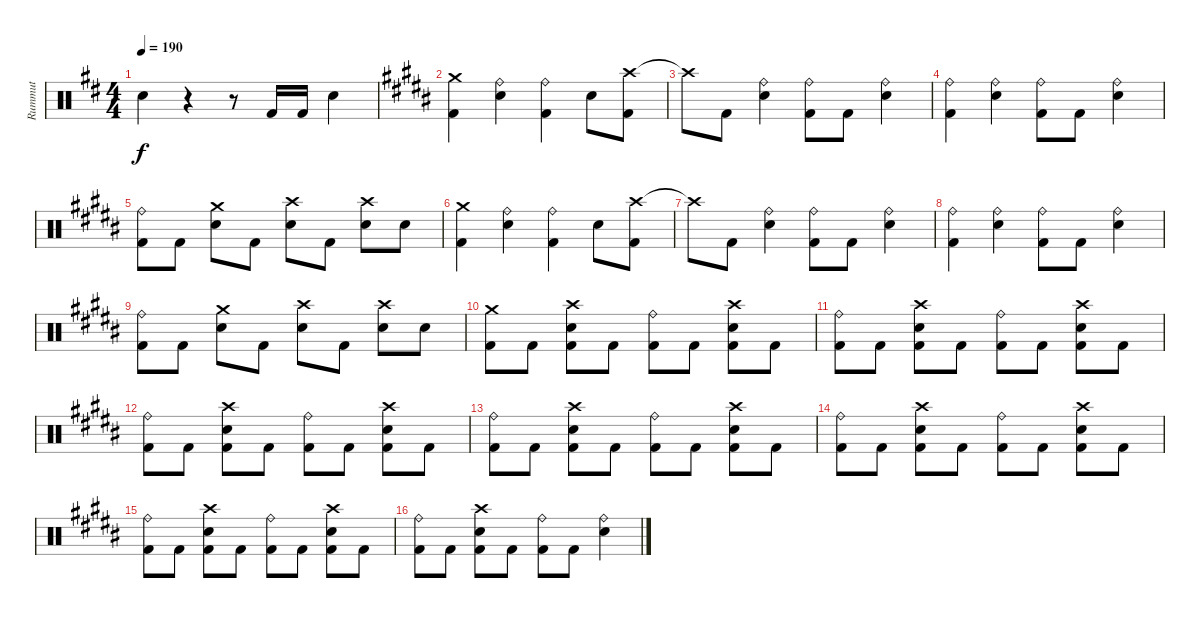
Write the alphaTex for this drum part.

\track ("Rummut" "Rummut") {instrument percussion}
\staff {score}
\articulation defaults
\ts (4 4)
\tempo 190
\clef neutral
\ks d "Snare (hit) 2".4{dy f}
r.4 r.8 "Kick (hit) 2".16 "Kick (hit) 2".16 "Snare (hit) 2".4 |
\ks b
("Crash medium (hit)" "Kick (hit) 2").4 ("Ride (bell)" "Snare (hit) 2").4 ("Ride (bell)" "Kick (hit) 2").4 "Snare (hit) 2".8 ("Crash high (hit)" "Kick (hit) 2").8 |
"Crash high (hit)"{t}.8 "Kick (hit) 2".8 ("Ride (bell)" "Snare (hit) 2").4 ("Ride (bell)" "Kick (hit) 2").8 "Kick (hit) 2".8 ("Ride (bell)" "Snare (hit) 2").4 |
("Ride (bell)" "Kick (hit) 2").4 ("Ride (bell)" "Snare (hit) 2").4 ("Ride (bell)" "Kick (hit) 2").8 "Kick (hit) 2".8 ("Ride (bell)" "Snare (hit) 2").4 |
("Ride (bell)" "Kick (hit) 2").8 "Kick (hit) 2".8 ("Crash medium (hit)" "Snare (hit) 2").8 "Kick (hit) 2".8 ("Crash high (hit)" "Snare (hit) 2").8 "Kick (hit) 2".8 ("Crash high (hit)" "Snare (hit) 2").8 "Snare (hit) 2".8 |
("Crash medium (hit)" "Kick (hit) 2").4 ("Ride (bell)" "Snare (hit) 2").4 ("Ride (bell)" "Kick (hit) 2").4 "Snare (hit) 2".8 ("Crash high (hit)" "Kick (hit) 2").8 |
"Crash high (hit)"{t}.8 "Kick (hit) 2".8 ("Ride (bell)" "Snare (hit) 2").4 ("Ride (bell)" "Kick (hit) 2").8 "Kick (hit) 2".8 ("Ride (bell)" "Snare (hit) 2").4 |
("Ride (bell)" "Kick (hit) 2").4 ("Ride (bell)" "Snare (hit) 2").4 ("Ride (bell)" "Kick (hit) 2").8 "Kick (hit) 2".8 ("Ride (bell)" "Snare (hit) 2").4 |
("Ride (bell)" "Kick (hit) 2").8 "Kick (hit) 2".8 ("Crash medium (hit)" "Snare (hit) 2").8 "Kick (hit) 2".8 ("Crash high (hit)" "Snare (hit) 2").8 "Kick (hit) 2".8 ("Crash high (hit)" "Snare (hit) 2").8 "Snare (hit) 2".8 |
("Crash medium (hit)" "Kick (hit) 2").8 "Kick (hit) 2".8 ("Crash high (hit)" "Snare (hit) 2" "Kick (hit) 2").8 "Kick (hit) 2".8 ("Ride (bell)" "Kick (hit) 2").8 "Kick (hit) 2".8 ("Crash high (hit)" "Snare (hit) 2" "Kick (hit) 2").8 "Kick (hit) 2".8 |
("Ride (bell)" "Kick (hit) 2").8 "Kick (hit) 2".8 ("Crash high (hit)" "Snare (hit) 2" "Kick (hit) 2").8 "Kick (hit) 2".8 ("Ride (bell)" "Kick (hit) 2").8 "Kick (hit) 2".8 ("Crash high (hit)" "Snare (hit) 2" "Kick (hit) 2").8 "Kick (hit) 2".8 |
("Ride (bell)" "Kick (hit) 2").8 "Kick (hit) 2".8 ("Crash high (hit)" "Snare (hit) 2" "Kick (hit) 2").8 "Kick (hit) 2".8 ("Ride (bell)" "Kick (hit) 2").8 "Kick (hit) 2".8 ("Crash high (hit)" "Snare (hit) 2" "Kick (hit) 2").8 "Kick (hit) 2".8 |
("Ride (bell)" "Kick (hit) 2").8 "Kick (hit) 2".8 ("Crash high (hit)" "Snare (hit) 2" "Kick (hit) 2").8 "Kick (hit) 2".8 ("Ride (bell)" "Kick (hit) 2").8 "Kick (hit) 2".8 ("Crash high (hit)" "Snare (hit) 2" "Kick (hit) 2").8 "Kick (hit) 2".8 |
("Ride (bell)" "Kick (hit) 2").8 "Kick (hit) 2".8 ("Crash high (hit)" "Snare (hit) 2" "Kick (hit) 2").8 "Kick (hit) 2".8 ("Ride (bell)" "Kick (hit) 2").8 "Kick (hit) 2".8 ("Crash high (hit)" "Snare (hit) 2" "Kick (hit) 2").8 "Kick (hit) 2".8 |
("Ride (bell)" "Kick (hit) 2").8 "Kick (hit) 2".8 ("Crash high (hit)" "Snare (hit) 2" "Kick (hit) 2").8 "Kick (hit) 2".8 ("Ride (bell)" "Kick (hit) 2").8 "Kick (hit) 2".8 ("Crash high (hit)" "Snare (hit) 2" "Kick (hit) 2").8 "Kick (hit) 2".8 |
("Ride (bell)" "Kick (hit) 2").8 "Kick (hit) 2".8 ("Crash high (hit)" "Snare (hit) 2" "Kick (hit) 2").8 "Kick (hit) 2".8 ("Ride (bell)" "Kick (hit) 2").8 "Kick (hit) 2".8 ("Ride (bell)" "Snare (hit) 2").4
